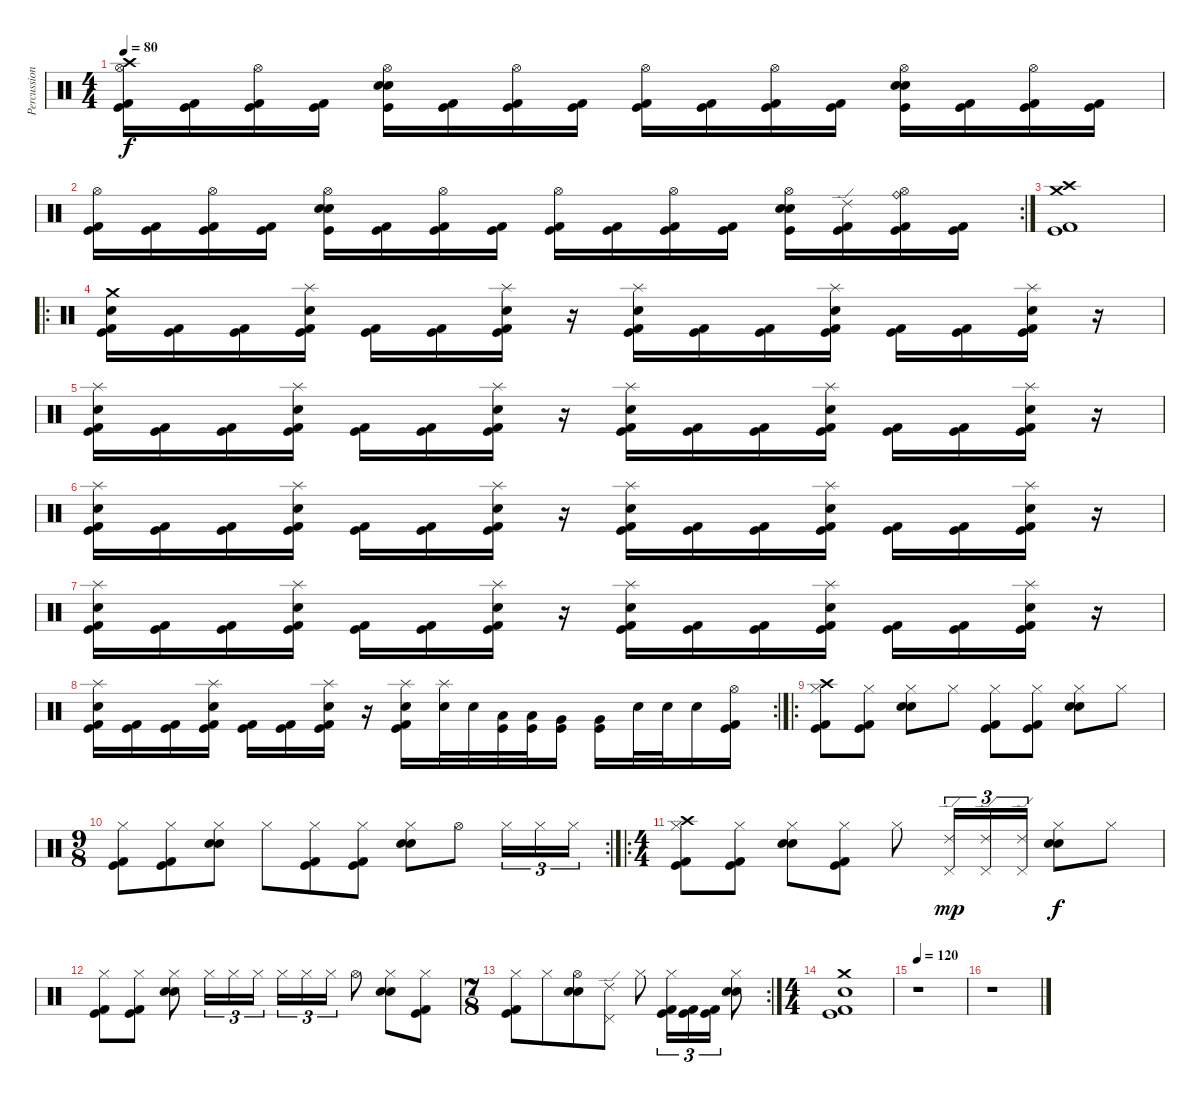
\track ("Percussion" "Percussion") {instrument percussion}
\staff {score}
\articulation defaults
\ts (4 4)
\tempo 80
\clef neutral
\ks c
("Hi-Hat (open)" "Crash high (hit)" "Kick (hit) 2" "Kick (hit)").16{dy f} ("Kick (hit) 2" "Kick (hit)").16 ("Hi-Hat (open)" "Kick (hit) 2" "Kick (hit)").16 ("Kick (hit) 2" "Kick (hit)").16 ("Hi-Hat (open)" "Electric Snare (hit)" "Snare (hit) 2" "Kick (hit)").16 ("Kick (hit) 2" "Kick (hit)").16 ("Hi-Hat (open)" "Kick (hit) 2" "Kick (hit)").16 ("Kick (hit) 2" "Kick (hit)").16 ("Hi-Hat (open)" "Kick (hit) 2" "Kick (hit)").16 ("Kick (hit) 2" "Kick (hit)").16 ("Hi-Hat (open)" "Kick (hit) 2" "Kick (hit)").16 ("Kick (hit) 2" "Kick (hit)").16 ("Hi-Hat (open)" "Electric Snare (hit)" "Snare (hit) 2" "Kick (hit)").16 ("Kick (hit) 2" "Kick (hit)").16 ("Hi-Hat (open)" "Kick (hit) 2" "Kick (hit)").16 ("Kick (hit) 2" "Kick (hit)").16 |
\rc 2
("Hi-Hat (open)" "Kick (hit) 2" "Kick (hit)").16 ("Kick (hit) 2" "Kick (hit)").16 ("Hi-Hat (open)" "Kick (hit) 2" "Kick (hit)").16 ("Kick (hit) 2" "Kick (hit)").16 ("Hi-Hat (open)" "Electric Snare (hit)" "Snare (hit) 2" "Kick (hit)").16 ("Kick (hit) 2" "Kick (hit)").16 ("Hi-Hat (open)" "Kick (hit) 2" "Kick (hit)").16 ("Kick (hit) 2" "Kick (hit)").16 ("Hi-Hat (open)" "Kick (hit) 2" "Kick (hit)").16 ("Kick (hit) 2" "Kick (hit)").16 ("Hi-Hat (open)" "Kick (hit) 2" "Kick (hit)").16 ("Kick (hit) 2" "Kick (hit)").16 ("Hi-Hat (open)" "Electric Snare (hit)" "Snare (hit) 2" "Kick (hit)").16 ("Ride (edge) 2" "Kick (hit) 2" "Kick (hit)").16 ("Hi-Hat (open)" "Ride (bell)" "Kick (hit) 2" "Kick (hit)").16 ("Kick (hit) 2" "Kick (hit)").16 |
("Crash high (hit)" "Crash medium (hit)" "Kick (hit) 2" "Kick (hit)").1 |
\ro
("Crash medium (hit)" "Snare (hit) 2" "Kick (hit) 2" "Kick (hit)").16 ("Kick (hit) 2" "Kick (hit)").16 ("Kick (hit) 2" "Kick (hit)").16 ("Splash (hit)" "Snare (hit) 2" "Kick (hit) 2" "Kick (hit)").16 ("Kick (hit) 2" "Kick (hit)").16 ("Kick (hit) 2" "Kick (hit)").16 ("Splash (hit)" "Snare (hit) 2" "Kick (hit) 2" "Kick (hit)").16 r.16 ("Splash (hit)" "Snare (hit) 2" "Kick (hit) 2" "Kick (hit)").16 ("Kick (hit) 2" "Kick (hit)").16 ("Kick (hit) 2" "Kick (hit)").16 ("Splash (hit)" "Snare (hit) 2" "Kick (hit) 2" "Kick (hit)").16 ("Kick (hit) 2" "Kick (hit)").16 ("Kick (hit) 2" "Kick (hit)").16 ("Splash (hit)" "Snare (hit) 2" "Kick (hit) 2" "Kick (hit)").16 r.16 |
("Splash (hit)" "Snare (hit) 2" "Kick (hit) 2" "Kick (hit)").16 ("Kick (hit) 2" "Kick (hit)").16 ("Kick (hit) 2" "Kick (hit)").16 ("Splash (hit)" "Snare (hit) 2" "Kick (hit) 2" "Kick (hit)").16 ("Kick (hit) 2" "Kick (hit)").16 ("Kick (hit) 2" "Kick (hit)").16 ("Splash (hit)" "Snare (hit) 2" "Kick (hit) 2" "Kick (hit)").16 r.16 ("Splash (hit)" "Snare (hit) 2" "Kick (hit) 2" "Kick (hit)").16 ("Kick (hit) 2" "Kick (hit)").16 ("Kick (hit) 2" "Kick (hit)").16 ("Splash (hit)" "Snare (hit) 2" "Kick (hit) 2" "Kick (hit)").16 ("Kick (hit) 2" "Kick (hit)").16 ("Kick (hit) 2" "Kick (hit)").16 ("Splash (hit)" "Snare (hit) 2" "Kick (hit) 2" "Kick (hit)").16 r.16 |
("Splash (hit)" "Snare (hit) 2" "Kick (hit) 2" "Kick (hit)").16 ("Kick (hit) 2" "Kick (hit)").16 ("Kick (hit) 2" "Kick (hit)").16 ("Splash (hit)" "Snare (hit) 2" "Kick (hit) 2" "Kick (hit)").16 ("Kick (hit) 2" "Kick (hit)").16 ("Kick (hit) 2" "Kick (hit)").16 ("Splash (hit)" "Snare (hit) 2" "Kick (hit) 2" "Kick (hit)").16 r.16 ("Splash (hit)" "Snare (hit) 2" "Kick (hit) 2" "Kick (hit)").16 ("Kick (hit) 2" "Kick (hit)").16 ("Kick (hit) 2" "Kick (hit)").16 ("Splash (hit)" "Snare (hit) 2" "Kick (hit) 2" "Kick (hit)").16 ("Kick (hit) 2" "Kick (hit)").16 ("Kick (hit) 2" "Kick (hit)").16 ("Splash (hit)" "Snare (hit) 2" "Kick (hit) 2" "Kick (hit)").16 r.16 |
("Splash (hit)" "Snare (hit) 2" "Kick (hit) 2" "Kick (hit)").16 ("Kick (hit) 2" "Kick (hit)").16 ("Kick (hit) 2" "Kick (hit)").16 ("Splash (hit)" "Snare (hit) 2" "Kick (hit) 2" "Kick (hit)").16 ("Kick (hit) 2" "Kick (hit)").16 ("Kick (hit) 2" "Kick (hit)").16 ("Splash (hit)" "Snare (hit) 2" "Kick (hit) 2" "Kick (hit)").16 r.16 ("Splash (hit)" "Snare (hit) 2" "Kick (hit) 2" "Kick (hit)").16 ("Kick (hit) 2" "Kick (hit)").16 ("Kick (hit) 2" "Kick (hit)").16 ("Splash (hit)" "Snare (hit) 2" "Kick (hit) 2" "Kick (hit)").16 ("Kick (hit) 2" "Kick (hit)").16 ("Kick (hit) 2" "Kick (hit)").16 ("Splash (hit)" "Snare (hit) 2" "Kick (hit) 2" "Kick (hit)").16 r.16 |
\rc 2
("Splash (hit)" "Snare (hit) 2" "Kick (hit) 2" "Kick (hit)").16 ("Kick (hit) 2" "Kick (hit)").16 ("Kick (hit) 2" "Kick (hit)").16 ("Splash (hit)" "Snare (hit) 2" "Kick (hit) 2" "Kick (hit)").16 ("Kick (hit) 2" "Kick (hit)").16 ("Kick (hit) 2" "Kick (hit)").16 ("Splash (hit)" "Snare (hit) 2" "Kick (hit) 2" "Kick (hit)").16 r.16 ("Splash (hit)" "Snare (hit) 2" "Kick (hit) 2" "Kick (hit)").16 ("Splash (hit)" "Snare (hit) 2").32 "Snare (hit) 2".32 ("Low Tom (hit)" "Kick (hit)").32 ("Low Tom (hit)" "Kick (hit)").32 ("Very Low Tom (hit)" "Kick (hit)").16 ("Very Low Tom (hit)" "Kick (hit)").16 "Snare (hit) 2".32 "Snare (hit) 2".32 "Snare (hit) 2".16 ("Hi-Hat (open)" "Kick (hit) 2" "Kick (hit)").16 |
\ro
("Hi-Hat (closed)" "Crash high (hit)" "Kick (hit) 2" "Kick (hit)").8 ("Hi-Hat (closed)" "Kick (hit) 2" "Kick (hit)").8 ("Hi-Hat (closed)" "Electric Snare (hit)" "Snare (hit) 2").8 "Hi-Hat (closed)".8 ("Hi-Hat (closed)" "Kick (hit) 2" "Kick (hit)").8 ("Hi-Hat (closed)" "Kick (hit) 2" "Kick (hit)").8 ("Hi-Hat (closed)" "Electric Snare (hit)" "Snare (hit) 2").8 "Hi-Hat (closed)".8 |
\rc 2
\ts (9 8)
("Hi-Hat (closed)" "Kick (hit) 2" "Kick (hit)").8 ("Hi-Hat (closed)" "Kick (hit) 2" "Kick (hit)").8 ("Hi-Hat (closed)" "Electric Snare (hit)" "Snare (hit) 2").8 "Hi-Hat (closed)".8 ("Hi-Hat (closed)" "Kick (hit) 2" "Kick (hit)").8 ("Hi-Hat (closed)" "Kick (hit) 2" "Kick (hit)").8 ("Hi-Hat (closed)" "Electric Snare (hit)" "Snare (hit) 2").8 "Hi-Hat (open)".8 "Hi-Hat (closed)".16{tu (3 2)} "Hi-Hat (closed)".16{tu (3 2)} "Hi-Hat (closed)".16{tu (3 2)} |
\ro
\ts (4 4)
("Hi-Hat (closed)" "Crash high (hit)" "Kick (hit) 2" "Kick (hit)").8 ("Hi-Hat (closed)" "Kick (hit) 2" "Kick (hit)").8 ("Hi-Hat (closed)" "Electric Snare (hit)" "Snare (hit) 2").8 ("Hi-Hat (closed)" "Kick (hit) 2" "Kick (hit)").8 "Hi-Hat (closed)".8 ("Ride (edge) 2" "Pedal Hi-Hat (hit)").16{tu (3 2) dy mp} ("Ride (edge) 2" "Pedal Hi-Hat (hit)").16{tu (3 2)} ("Ride (edge) 2" "Pedal Hi-Hat (hit)").16{tu (3 2)} ("Hi-Hat (closed)" "Electric Snare (hit)" "Snare (hit) 2").8{dy f} "Hi-Hat (closed)".8 |
("Hi-Hat (closed)" "Kick (hit) 2" "Kick (hit)").8 ("Hi-Hat (closed)" "Kick (hit) 2" "Kick (hit)").8 ("Hi-Hat (closed)" "Electric Snare (hit)" "Snare (hit) 2").8 "Hi-Hat (closed)".16{tu (3 2)} "Hi-Hat (closed)".16{tu (3 2)} "Hi-Hat (closed)".16{tu (3 2)} "Hi-Hat (closed)".16{tu (3 2)} "Hi-Hat (closed)".16{tu (3 2)} "Hi-Hat (closed)".16{tu (3 2)} "Hi-Hat (open)".8 ("Hi-Hat (closed)" "Electric Snare (hit)" "Snare (hit) 2").8 ("Hi-Hat (closed)" "Kick (hit) 2" "Kick (hit)").8 |
\rc 2
\ts (7 8)
("Hi-Hat (closed)" "Kick (hit) 2" "Kick (hit)").8 "Hi-Hat (closed)".8 ("Hi-Hat (open)" "Electric Snare (hit)" "Snare (hit) 2").8 ("Pedal Hi-Hat (hit)" "Ride (edge) 2").8 "Hi-Hat (closed)".8 ("Hi-Hat (closed)" "Kick (hit) 2" "Kick (hit)").16{tu (3 2)} ("Kick (hit) 2" "Kick (hit)").16{tu (3 2)} ("Kick (hit) 2" "Kick (hit)").16{tu (3 2)} ("Hi-Hat (closed)" "Electric Snare (hit)" "Snare (hit) 2").8 |
\ts (4 4)
("Crash medium (hit)" "Snare (hit) 2" "Kick (hit) 2" "Kick (hit)").1 |
\tempo 120
r.1 |
r.1
